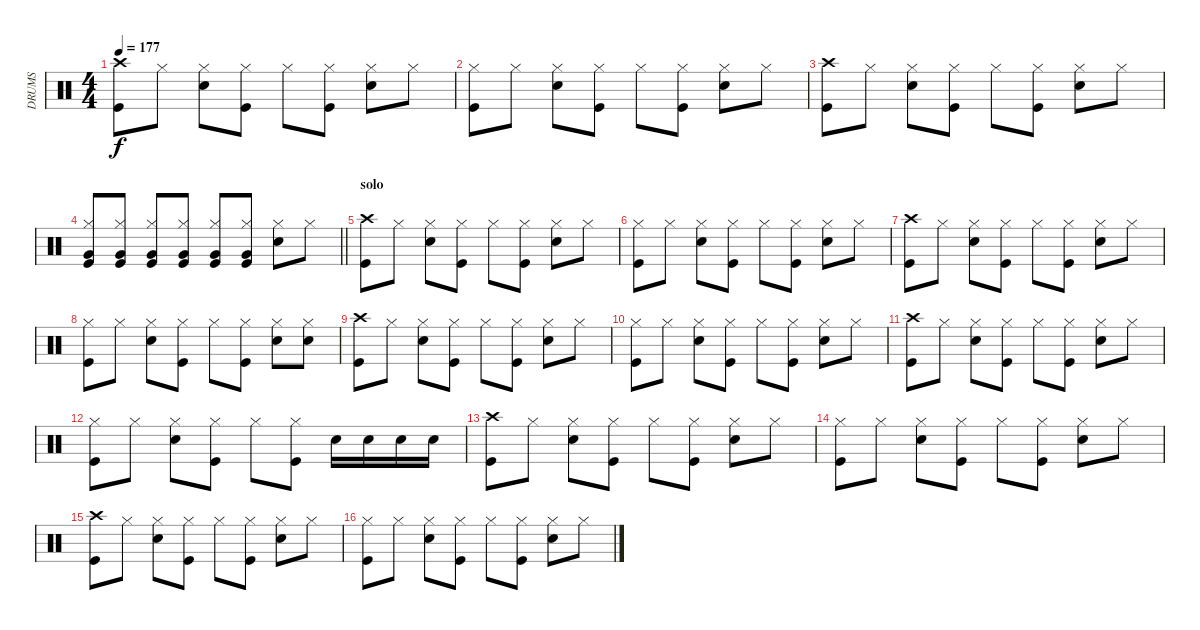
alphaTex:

\track ("DRUMS" "DRUMS") {instrument percussion}
\staff {score}
\articulation defaults
\ts (4 4)
\tempo 177
\clef neutral
\ks c
("Crash high (hit)" "Kick (hit)").8{dy f} "Hi-Hat (closed)".8 ("Hi-Hat (closed)" "Snare (hit) 2").8 ("Hi-Hat (closed)" "Kick (hit)").8 "Hi-Hat (closed)".8 ("Hi-Hat (closed)" "Kick (hit)").8 ("Hi-Hat (closed)" "Snare (hit) 2").8 "Hi-Hat (closed)".8 |
("Hi-Hat (closed)" "Kick (hit)").8 "Hi-Hat (closed)".8 ("Hi-Hat (closed)" "Snare (hit) 2").8 ("Hi-Hat (closed)" "Kick (hit)").8 "Hi-Hat (closed)".8 ("Hi-Hat (closed)" "Kick (hit)").8 ("Hi-Hat (closed)" "Snare (hit) 2").8 "Hi-Hat (closed)".8 |
("Crash high (hit)" "Kick (hit)").8 "Hi-Hat (closed)".8 ("Hi-Hat (closed)" "Snare (hit) 2").8 ("Hi-Hat (closed)" "Kick (hit)").8 "Hi-Hat (closed)".8 ("Hi-Hat (closed)" "Kick (hit)").8 ("Hi-Hat (closed)" "Snare (hit) 2").8 "Hi-Hat (closed)".8 |
\barLineRight lightlight
("Hi-Hat (closed)" "Very Low Tom (hit)" "Kick (hit)").8 ("Hi-Hat (closed)" "Very Low Tom (hit)" "Kick (hit)").8 ("Hi-Hat (closed)" "Very Low Tom (hit)" "Kick (hit)").8 ("Hi-Hat (closed)" "Very Low Tom (hit)" "Kick (hit)").8 ("Hi-Hat (closed)" "Very Low Tom (hit)" "Kick (hit)").8 ("Hi-Hat (closed)" "Very Low Tom (hit)" "Kick (hit)").8 ("Hi-Hat (closed)" "Snare (hit) 2").8 "Hi-Hat (closed)".8 |
\section ("" "solo")
("Crash high (hit)" "Kick (hit)").8 "Hi-Hat (closed)".8 ("Hi-Hat (closed)" "Snare (hit) 2").8 ("Hi-Hat (closed)" "Kick (hit)").8 "Hi-Hat (closed)".8 ("Hi-Hat (closed)" "Kick (hit)").8 ("Hi-Hat (closed)" "Snare (hit) 2").8 "Hi-Hat (closed)".8 |
("Hi-Hat (closed)" "Kick (hit)").8 "Hi-Hat (closed)".8 ("Hi-Hat (closed)" "Snare (hit) 2").8 ("Hi-Hat (closed)" "Kick (hit)").8 "Hi-Hat (closed)".8 ("Hi-Hat (closed)" "Kick (hit)").8 ("Hi-Hat (closed)" "Snare (hit) 2").8 "Hi-Hat (closed)".8 |
("Crash high (hit)" "Kick (hit)").8 "Hi-Hat (closed)".8 ("Hi-Hat (closed)" "Snare (hit) 2").8 ("Hi-Hat (closed)" "Kick (hit)").8 "Hi-Hat (closed)".8 ("Hi-Hat (closed)" "Kick (hit)").8 ("Hi-Hat (closed)" "Snare (hit) 2").8 "Hi-Hat (closed)".8 |
("Hi-Hat (closed)" "Kick (hit)").8 "Hi-Hat (closed)".8 ("Hi-Hat (closed)" "Snare (hit) 2").8 ("Hi-Hat (closed)" "Kick (hit)").8 "Hi-Hat (closed)".8 ("Hi-Hat (closed)" "Kick (hit)").8 ("Hi-Hat (closed)" "Snare (hit) 2").8 ("Hi-Hat (closed)" "Snare (hit) 2").8 |
("Crash high (hit)" "Kick (hit)").8 "Hi-Hat (closed)".8 ("Hi-Hat (closed)" "Snare (hit) 2").8 ("Hi-Hat (closed)" "Kick (hit)").8 "Hi-Hat (closed)".8 ("Hi-Hat (closed)" "Kick (hit)").8 ("Hi-Hat (closed)" "Snare (hit) 2").8 "Hi-Hat (closed)".8 |
("Hi-Hat (closed)" "Kick (hit)").8 "Hi-Hat (closed)".8 ("Hi-Hat (closed)" "Snare (hit) 2").8 ("Hi-Hat (closed)" "Kick (hit)").8 "Hi-Hat (closed)".8 ("Hi-Hat (closed)" "Kick (hit)").8 ("Hi-Hat (closed)" "Snare (hit) 2").8 "Hi-Hat (closed)".8 |
("Crash high (hit)" "Kick (hit)").8 "Hi-Hat (closed)".8 ("Hi-Hat (closed)" "Snare (hit) 2").8 ("Hi-Hat (closed)" "Kick (hit)").8 "Hi-Hat (closed)".8 ("Hi-Hat (closed)" "Kick (hit)").8 ("Hi-Hat (closed)" "Snare (hit) 2").8 "Hi-Hat (closed)".8 |
("Hi-Hat (closed)" "Kick (hit)").8 "Hi-Hat (closed)".8 ("Hi-Hat (closed)" "Snare (hit) 2").8 ("Hi-Hat (closed)" "Kick (hit)").8 "Hi-Hat (closed)".8 ("Hi-Hat (closed)" "Kick (hit)").8 "Snare (hit) 2".16 "Snare (hit) 2".16 "Snare (hit) 2".16 "Snare (hit) 2".16 |
("Crash high (hit)" "Kick (hit)").8 "Hi-Hat (closed)".8 ("Hi-Hat (closed)" "Snare (hit) 2").8 ("Hi-Hat (closed)" "Kick (hit)").8 "Hi-Hat (closed)".8 ("Hi-Hat (closed)" "Kick (hit)").8 ("Hi-Hat (closed)" "Snare (hit) 2").8 "Hi-Hat (closed)".8 |
("Hi-Hat (closed)" "Kick (hit)").8 "Hi-Hat (closed)".8 ("Hi-Hat (closed)" "Snare (hit) 2").8 ("Hi-Hat (closed)" "Kick (hit)").8 "Hi-Hat (closed)".8 ("Hi-Hat (closed)" "Kick (hit)").8 ("Hi-Hat (closed)" "Snare (hit) 2").8 "Hi-Hat (closed)".8 |
("Crash high (hit)" "Kick (hit)").8 "Hi-Hat (closed)".8 ("Hi-Hat (closed)" "Snare (hit) 2").8 ("Hi-Hat (closed)" "Kick (hit)").8 "Hi-Hat (closed)".8 ("Hi-Hat (closed)" "Kick (hit)").8 ("Hi-Hat (closed)" "Snare (hit) 2").8 "Hi-Hat (closed)".8 |
("Hi-Hat (closed)" "Kick (hit)").8 "Hi-Hat (closed)".8 ("Hi-Hat (closed)" "Snare (hit) 2").8 ("Hi-Hat (closed)" "Kick (hit)").8 "Hi-Hat (closed)".8 ("Hi-Hat (closed)" "Kick (hit)").8 ("Hi-Hat (closed)" "Snare (hit) 2").8 "Hi-Hat (closed)".8
